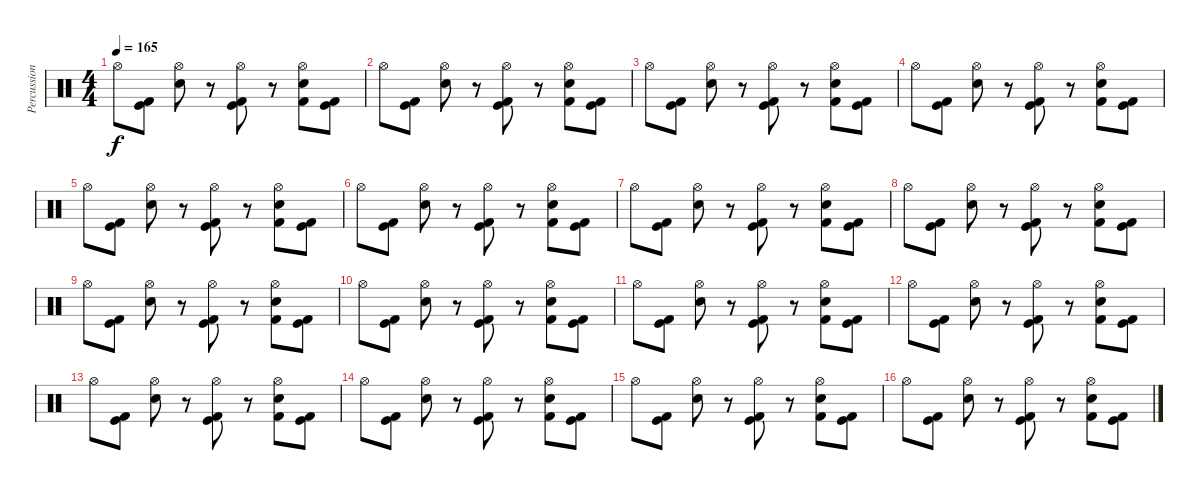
\track ("Percussions" "Percussion") {instrument percussion}
\staff {score}
\articulation defaults
\ts (4 4)
\tempo 165
\clef neutral
\ks c "Hi-Hat (open)".8{dy f}
("Kick (hit) 2" "Kick (hit)").8 ("Snare (hit) 2" "Hi-Hat (open)").8 r.8 ("Kick (hit) 2" "Kick (hit)" "Hi-Hat (open)").8 r.8 ("Kick (hit) 2" "Snare (hit) 2" "Hi-Hat (open)").8 ("Kick (hit) 2" "Kick (hit)").8 |
"Hi-Hat (open)".8 ("Kick (hit) 2" "Kick (hit)").8 ("Snare (hit) 2" "Hi-Hat (open)").8 r.8 ("Kick (hit) 2" "Kick (hit)" "Hi-Hat (open)").8 r.8 ("Kick (hit) 2" "Snare (hit) 2" "Hi-Hat (open)").8 ("Kick (hit) 2" "Kick (hit)").8 |
"Hi-Hat (open)".8 ("Kick (hit) 2" "Kick (hit)").8 ("Snare (hit) 2" "Hi-Hat (open)").8 r.8 ("Kick (hit) 2" "Kick (hit)" "Hi-Hat (open)").8 r.8 ("Kick (hit) 2" "Snare (hit) 2" "Hi-Hat (open)").8 ("Kick (hit) 2" "Kick (hit)").8 |
"Hi-Hat (open)".8 ("Kick (hit) 2" "Kick (hit)").8 ("Snare (hit) 2" "Hi-Hat (open)").8 r.8 ("Kick (hit) 2" "Kick (hit)" "Hi-Hat (open)").8 r.8 ("Kick (hit) 2" "Snare (hit) 2" "Hi-Hat (open)").8 ("Kick (hit) 2" "Kick (hit)").8 |
"Hi-Hat (open)".8 ("Kick (hit) 2" "Kick (hit)").8 ("Snare (hit) 2" "Hi-Hat (open)").8 r.8 ("Kick (hit) 2" "Kick (hit)" "Hi-Hat (open)").8 r.8 ("Kick (hit) 2" "Snare (hit) 2" "Hi-Hat (open)").8 ("Kick (hit) 2" "Kick (hit)").8 |
"Hi-Hat (open)".8 ("Kick (hit) 2" "Kick (hit)").8 ("Snare (hit) 2" "Hi-Hat (open)").8 r.8 ("Kick (hit) 2" "Kick (hit)" "Hi-Hat (open)").8 r.8 ("Kick (hit) 2" "Snare (hit) 2" "Hi-Hat (open)").8 ("Kick (hit) 2" "Kick (hit)").8 |
"Hi-Hat (open)".8 ("Kick (hit) 2" "Kick (hit)").8 ("Snare (hit) 2" "Hi-Hat (open)").8 r.8 ("Kick (hit) 2" "Kick (hit)" "Hi-Hat (open)").8 r.8 ("Kick (hit) 2" "Snare (hit) 2" "Hi-Hat (open)").8 ("Kick (hit) 2" "Kick (hit)").8 |
"Hi-Hat (open)".8 ("Kick (hit) 2" "Kick (hit)").8 ("Snare (hit) 2" "Hi-Hat (open)").8 r.8 ("Kick (hit) 2" "Kick (hit)" "Hi-Hat (open)").8 r.8 ("Kick (hit) 2" "Snare (hit) 2" "Hi-Hat (open)").8 ("Kick (hit) 2" "Kick (hit)").8 |
"Hi-Hat (open)".8 ("Kick (hit) 2" "Kick (hit)").8 ("Snare (hit) 2" "Hi-Hat (open)").8 r.8 ("Kick (hit) 2" "Kick (hit)" "Hi-Hat (open)").8 r.8 ("Kick (hit) 2" "Snare (hit) 2" "Hi-Hat (open)").8 ("Kick (hit) 2" "Kick (hit)").8 |
"Hi-Hat (open)".8 ("Kick (hit) 2" "Kick (hit)").8 ("Snare (hit) 2" "Hi-Hat (open)").8 r.8 ("Kick (hit) 2" "Kick (hit)" "Hi-Hat (open)").8 r.8 ("Kick (hit) 2" "Snare (hit) 2" "Hi-Hat (open)").8 ("Kick (hit) 2" "Kick (hit)").8 |
"Hi-Hat (open)".8 ("Kick (hit) 2" "Kick (hit)").8 ("Snare (hit) 2" "Hi-Hat (open)").8 r.8 ("Kick (hit) 2" "Kick (hit)" "Hi-Hat (open)").8 r.8 ("Kick (hit) 2" "Snare (hit) 2" "Hi-Hat (open)").8 ("Kick (hit) 2" "Kick (hit)").8 |
"Hi-Hat (open)".8 ("Kick (hit) 2" "Kick (hit)").8 ("Snare (hit) 2" "Hi-Hat (open)").8 r.8 ("Kick (hit) 2" "Kick (hit)" "Hi-Hat (open)").8 r.8 ("Kick (hit) 2" "Snare (hit) 2" "Hi-Hat (open)").8 ("Kick (hit) 2" "Kick (hit)").8 |
"Hi-Hat (open)".8 ("Kick (hit) 2" "Kick (hit)").8 ("Snare (hit) 2" "Hi-Hat (open)").8 r.8 ("Kick (hit) 2" "Kick (hit)" "Hi-Hat (open)").8 r.8 ("Kick (hit) 2" "Snare (hit) 2" "Hi-Hat (open)").8 ("Kick (hit) 2" "Kick (hit)").8 |
"Hi-Hat (open)".8 ("Kick (hit) 2" "Kick (hit)").8 ("Snare (hit) 2" "Hi-Hat (open)").8 r.8 ("Kick (hit) 2" "Kick (hit)" "Hi-Hat (open)").8 r.8 ("Kick (hit) 2" "Snare (hit) 2" "Hi-Hat (open)").8 ("Kick (hit) 2" "Kick (hit)").8 |
"Hi-Hat (open)".8 ("Kick (hit) 2" "Kick (hit)").8 ("Snare (hit) 2" "Hi-Hat (open)").8 r.8 ("Kick (hit) 2" "Kick (hit)" "Hi-Hat (open)").8 r.8 ("Kick (hit) 2" "Snare (hit) 2" "Hi-Hat (open)").8 ("Kick (hit) 2" "Kick (hit)").8 |
"Hi-Hat (open)".8 ("Kick (hit) 2" "Kick (hit)").8 ("Snare (hit) 2" "Hi-Hat (open)").8 r.8 ("Kick (hit) 2" "Kick (hit)" "Hi-Hat (open)").8 r.8 ("Kick (hit) 2" "Snare (hit) 2" "Hi-Hat (open)").8 ("Kick (hit) 2" "Kick (hit)").8
